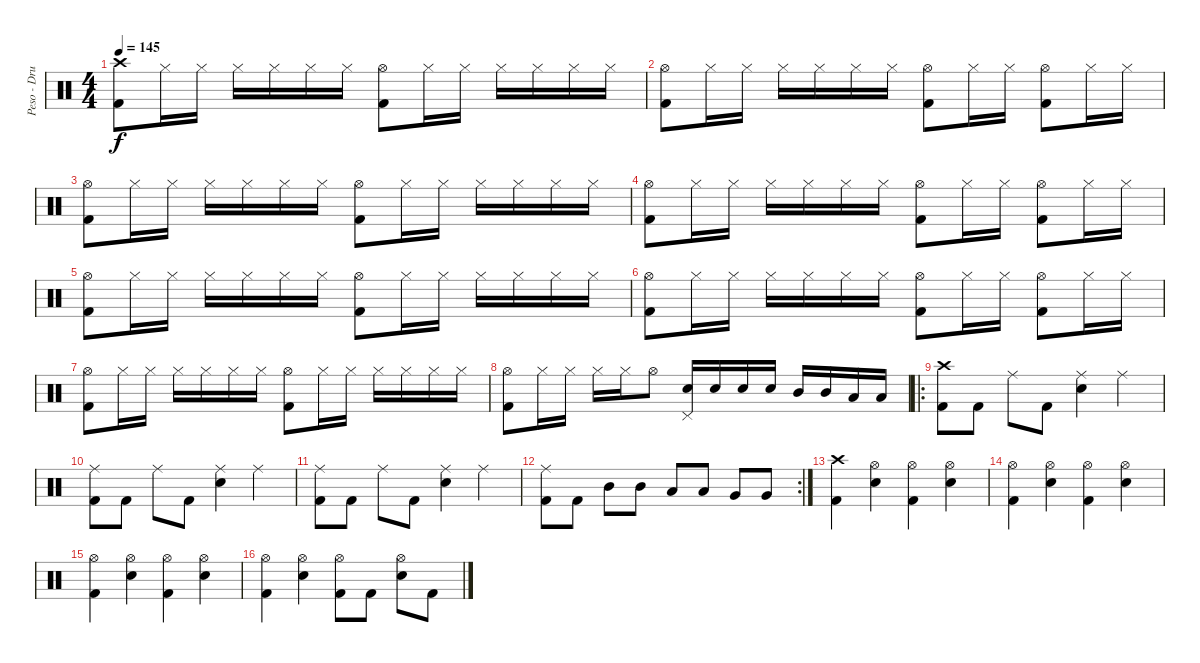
\track ("Peso - Drums" "Peso - Dru") {instrument percussion}
\staff {score}
\articulation defaults
\ts (4 4)
\tempo 145
\clef neutral
\ks c
("Crash high (hit)" "Kick (hit) 2").8{dy f} "Hi-Hat (closed)".16 "Hi-Hat (closed)".16 "Hi-Hat (closed)".16 "Hi-Hat (closed)".16 "Hi-Hat (closed)".16 "Hi-Hat (closed)".16 ("Hi-Hat (open)" "Kick (hit) 2").8 "Hi-Hat (closed)".16 "Hi-Hat (closed)".16 "Hi-Hat (closed)".16 "Hi-Hat (closed)".16 "Hi-Hat (closed)".16 "Hi-Hat (closed)".16 |
("Hi-Hat (open)" "Kick (hit) 2").8 "Hi-Hat (closed)".16 "Hi-Hat (closed)".16 "Hi-Hat (closed)".16 "Hi-Hat (closed)".16 "Hi-Hat (closed)".16 "Hi-Hat (closed)".16 ("Hi-Hat (open)" "Kick (hit) 2").8 "Hi-Hat (closed)".16 "Hi-Hat (closed)".16 ("Hi-Hat (open)" "Kick (hit) 2").8 "Hi-Hat (closed)".16 "Hi-Hat (closed)".16 |
("Hi-Hat (open)" "Kick (hit) 2").8 "Hi-Hat (closed)".16 "Hi-Hat (closed)".16 "Hi-Hat (closed)".16 "Hi-Hat (closed)".16 "Hi-Hat (closed)".16 "Hi-Hat (closed)".16 ("Hi-Hat (open)" "Kick (hit) 2").8 "Hi-Hat (closed)".16 "Hi-Hat (closed)".16 "Hi-Hat (closed)".16 "Hi-Hat (closed)".16 "Hi-Hat (closed)".16 "Hi-Hat (closed)".16 |
("Hi-Hat (open)" "Kick (hit) 2").8 "Hi-Hat (closed)".16 "Hi-Hat (closed)".16 "Hi-Hat (closed)".16 "Hi-Hat (closed)".16 "Hi-Hat (closed)".16 "Hi-Hat (closed)".16 ("Hi-Hat (open)" "Kick (hit) 2").8 "Hi-Hat (closed)".16 "Hi-Hat (closed)".16 ("Hi-Hat (open)" "Kick (hit) 2").8 "Hi-Hat (closed)".16 "Hi-Hat (closed)".16 |
("Hi-Hat (open)" "Kick (hit) 2").8 "Hi-Hat (closed)".16 "Hi-Hat (closed)".16 "Hi-Hat (closed)".16 "Hi-Hat (closed)".16 "Hi-Hat (closed)".16 "Hi-Hat (closed)".16 ("Hi-Hat (open)" "Kick (hit) 2").8 "Hi-Hat (closed)".16 "Hi-Hat (closed)".16 "Hi-Hat (closed)".16 "Hi-Hat (closed)".16 "Hi-Hat (closed)".16 "Hi-Hat (closed)".16 |
("Hi-Hat (open)" "Kick (hit) 2").8 "Hi-Hat (closed)".16 "Hi-Hat (closed)".16 "Hi-Hat (closed)".16 "Hi-Hat (closed)".16 "Hi-Hat (closed)".16 "Hi-Hat (closed)".16 ("Hi-Hat (open)" "Kick (hit) 2").8 "Hi-Hat (closed)".16 "Hi-Hat (closed)".16 ("Hi-Hat (open)" "Kick (hit) 2").8 "Hi-Hat (closed)".16 "Hi-Hat (closed)".16 |
("Hi-Hat (open)" "Kick (hit) 2").8 "Hi-Hat (closed)".16 "Hi-Hat (closed)".16 "Hi-Hat (closed)".16 "Hi-Hat (closed)".16 "Hi-Hat (closed)".16 "Hi-Hat (closed)".16 ("Hi-Hat (open)" "Kick (hit) 2").8 "Hi-Hat (closed)".16 "Hi-Hat (closed)".16 "Hi-Hat (closed)".16 "Hi-Hat (closed)".16 "Hi-Hat (closed)".16 "Hi-Hat (closed)".16 |
("Hi-Hat (open)" "Kick (hit) 2").8 "Hi-Hat (closed)".16 "Hi-Hat (closed)".16 "Hi-Hat (closed)".16 "Hi-Hat (closed)".16 "Hi-Hat (open)".8 ("Pedal Hi-Hat (hit)" "Electric Snare (hit)").16 "Electric Snare (hit)".16 "Electric Snare (hit)".16 "Electric Snare (hit)".16 "Mid Tom (hit)".16 "Mid Tom (hit)".16 "Low Tom (hit)".16 "Low Tom (hit)".16 |
\ro
("Crash high (hit)" "Kick (hit) 2").8 "Kick (hit) 2".8 "Ride (middle)".8 "Kick (hit) 2".8 ("Ride (middle)" "Electric Snare (hit)").4 "Ride (middle)".4 |
("Ride (middle)" "Kick (hit) 2").8 "Kick (hit) 2".8 "Ride (middle)".8 "Kick (hit) 2".8 ("Ride (middle)" "Electric Snare (hit)").4 "Ride (middle)".4 |
("Ride (middle)" "Kick (hit) 2").8 "Kick (hit) 2".8 "Ride (middle)".8 "Kick (hit) 2".8 ("Ride (middle)" "Electric Snare (hit)").4 "Ride (middle)".4 |
\rc 2
("Ride (middle)" "Kick (hit) 2").8 "Kick (hit) 2".8 "Mid Tom (hit)".8 "Mid Tom (hit)".8 "Low Tom (hit)".8 "Low Tom (hit)".8 "Very Low Tom (hit)".8 "Very Low Tom (hit)".8 |
("Crash high (hit)" "Kick (hit) 2").4 ("Hi-Hat (open)" "Electric Snare (hit)").4 ("Hi-Hat (open)" "Kick (hit) 2").4 ("Hi-Hat (open)" "Electric Snare (hit)").4 |
("Hi-Hat (open)" "Kick (hit) 2").4 ("Hi-Hat (open)" "Electric Snare (hit)").4 ("Hi-Hat (open)" "Kick (hit) 2").4 ("Hi-Hat (open)" "Electric Snare (hit)").4 |
("Hi-Hat (open)" "Kick (hit) 2").4 ("Hi-Hat (open)" "Electric Snare (hit)").4 ("Hi-Hat (open)" "Kick (hit) 2").4 ("Hi-Hat (open)" "Electric Snare (hit)").4 |
("Hi-Hat (open)" "Kick (hit) 2").4 ("Hi-Hat (open)" "Electric Snare (hit)").4 ("Hi-Hat (open)" "Kick (hit) 2").8 "Kick (hit) 2".8 ("Hi-Hat (open)" "Electric Snare (hit)").8 "Kick (hit) 2".8
